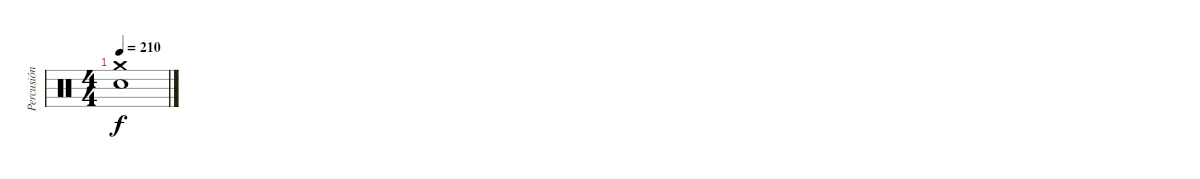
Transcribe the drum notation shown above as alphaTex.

\track ("Percusión" "Percusión") {instrument percussion}
\staff {score}
\articulation defaults
\ts (4 4)
\tempo 210
\clef neutral
\ks c
("Crash medium (hit)" "Snare (hit) 2").1{dy f}
